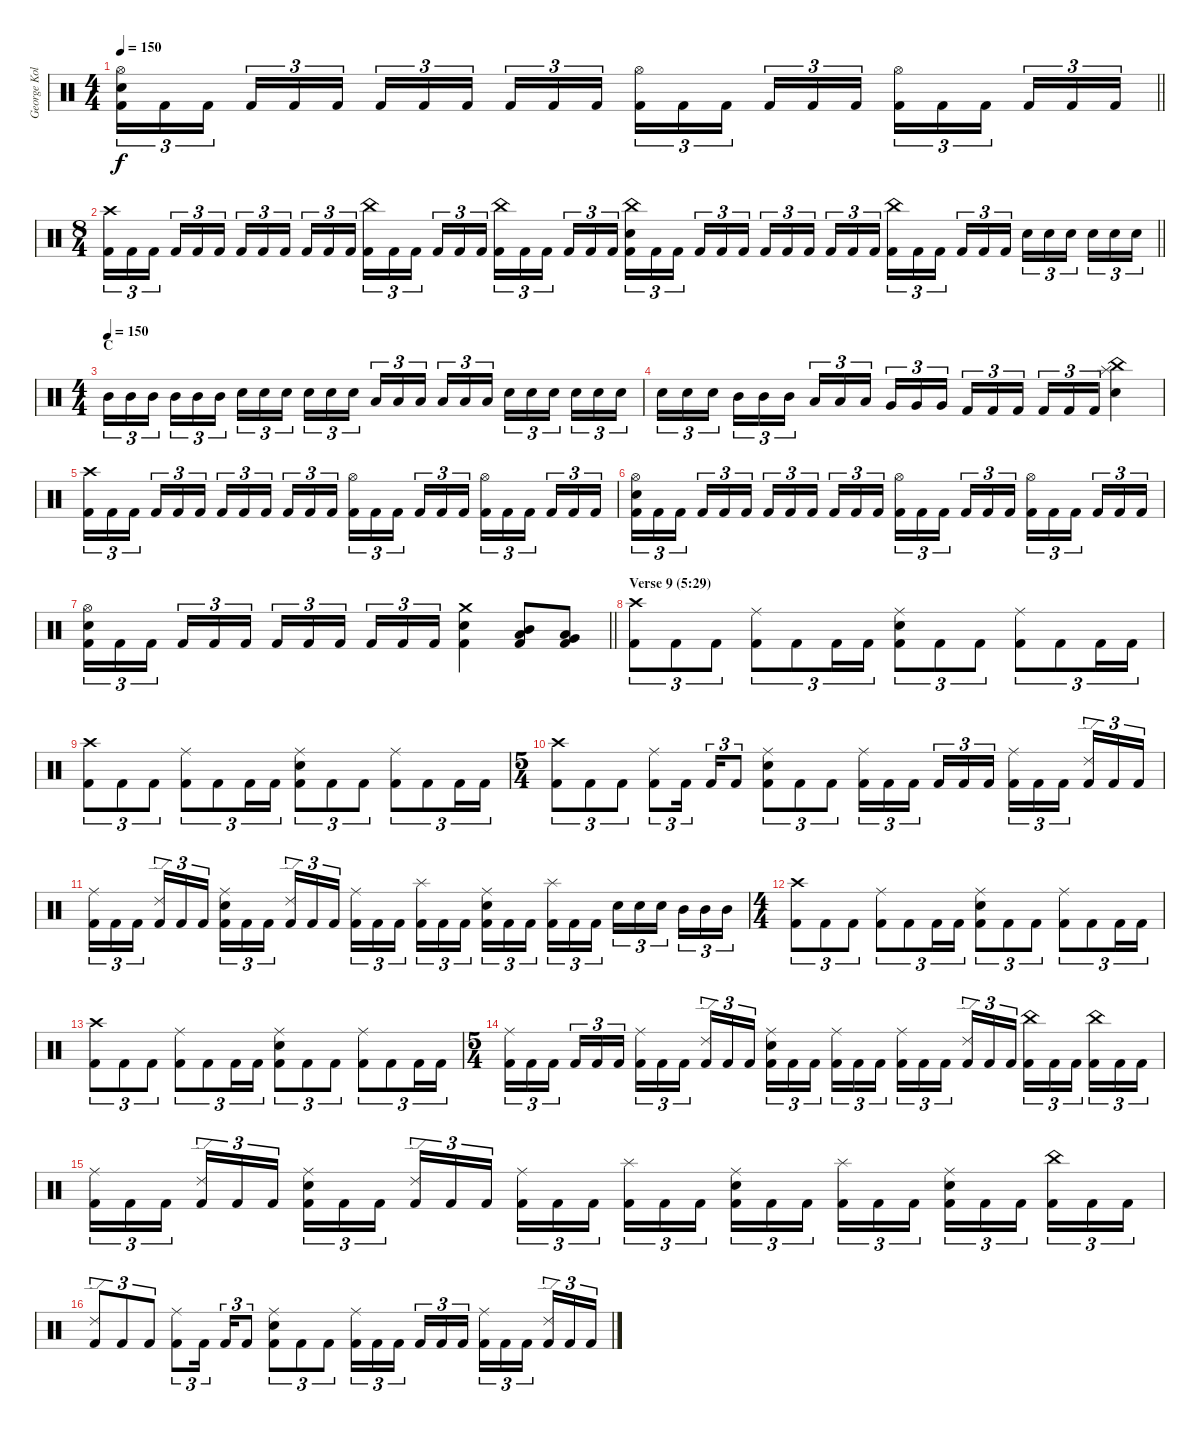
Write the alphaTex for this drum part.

\track ("George Kollias" "George Kol") {instrument percussion}
\staff {score}
\articulation defaults
\ts (4 4)
\tempo 150
\clef neutral
\barLineRight lightlight
\ks c
("Hi-Hat (open)" "Electric Snare (hit)" "Kick (hit) 2").16{tu (3 2) dy f} "Kick (hit) 2".16{tu (3 2)} "Kick (hit) 2".16{tu (3 2) beam splitsecondary} "Kick (hit) 2".16{tu (3 2)} "Kick (hit) 2".16{tu (3 2)} "Kick (hit) 2".16{tu (3 2)} "Kick (hit) 2".16{tu (3 2)} "Kick (hit) 2".16{tu (3 2)} "Kick (hit) 2".16{tu (3 2) beam splitsecondary} "Kick (hit) 2".16{tu (3 2)} "Kick (hit) 2".16{tu (3 2)} "Kick (hit) 2".16{tu (3 2)} ("Hi-Hat (open)" "Kick (hit) 2").16{tu (3 2)} "Kick (hit) 2".16{tu (3 2)} "Kick (hit) 2".16{tu (3 2) beam splitsecondary} "Kick (hit) 2".16{tu (3 2)} "Kick (hit) 2".16{tu (3 2)} "Kick (hit) 2".16{tu (3 2)} ("Hi-Hat (open)" "Kick (hit) 2").16{tu (3 2)} "Kick (hit) 2".16{tu (3 2)} "Kick (hit) 2".16{tu (3 2) beam splitsecondary} "Kick (hit) 2".16{tu (3 2)} "Kick (hit) 2".16{tu (3 2)} "Kick (hit) 2".16{tu (3 2)} |
\ts (8 4)
\barLineRight lightlight
("Crash high (hit)" "Kick (hit) 2").16{tu (3 2)} "Kick (hit) 2".16{tu (3 2)} "Kick (hit) 2".16{tu (3 2) beam splitsecondary} "Kick (hit) 2".16{tu (3 2)} "Kick (hit) 2".16{tu (3 2)} "Kick (hit) 2".16{tu (3 2)} "Kick (hit) 2".16{tu (3 2)} "Kick (hit) 2".16{tu (3 2)} "Kick (hit) 2".16{tu (3 2) beam splitsecondary} "Kick (hit) 2".16{tu (3 2)} "Kick (hit) 2".16{tu (3 2)} "Kick (hit) 2".16{tu (3 2)} ("China (hit)" "Kick (hit) 2").16{tu (3 2)} "Kick (hit) 2".16{tu (3 2)} "Kick (hit) 2".16{tu (3 2) beam splitsecondary} "Kick (hit) 2".16{tu (3 2)} "Kick (hit) 2".16{tu (3 2)} "Kick (hit) 2".16{tu (3 2)} ("China (hit)" "Kick (hit) 2").16{tu (3 2)} "Kick (hit) 2".16{tu (3 2)} "Kick (hit) 2".16{tu (3 2) beam splitsecondary} "Kick (hit) 2".16{tu (3 2)} "Kick (hit) 2".16{tu (3 2)} "Kick (hit) 2".16{tu (3 2)} ("China (hit)" "Electric Snare (hit)" "Kick (hit) 2").16{tu (3 2)} "Kick (hit) 2".16{tu (3 2)} "Kick (hit) 2".16{tu (3 2) beam splitsecondary} "Kick (hit) 2".16{tu (3 2)} "Kick (hit) 2".16{tu (3 2)} "Kick (hit) 2".16{tu (3 2)} "Kick (hit) 2".16{tu (3 2)} "Kick (hit) 2".16{tu (3 2)} "Kick (hit) 2".16{tu (3 2) beam splitsecondary} "Kick (hit) 2".16{tu (3 2)} "Kick (hit) 2".16{tu (3 2)} "Kick (hit) 2".16{tu (3 2)} ("China (hit)" "Kick (hit) 2").16{tu (3 2)} "Kick (hit) 2".16{tu (3 2)} "Kick (hit) 2".16{tu (3 2) beam splitsecondary} "Kick (hit) 2".16{tu (3 2)} "Kick (hit) 2".16{tu (3 2)} "Kick (hit) 2".16{tu (3 2)} "Electric Snare (hit)".16{tu (3 2)} "Electric Snare (hit)".16{tu (3 2)} "Electric Snare (hit)".16{tu (3 2) beam splitsecondary} "Electric Snare (hit)".16{tu (3 2)} "Electric Snare (hit)".16{tu (3 2)} "Electric Snare (hit)".16{tu (3 2)} |
\ts (4 4)
\section ("" "C")
\tempo (150)
"Mid Tom (hit)".16{tu (3 2)} "Mid Tom (hit)".16{tu (3 2)} "Mid Tom (hit)".16{tu (3 2) beam splitsecondary} "Mid Tom (hit)".16{tu (3 2)} "Mid Tom (hit)".16{tu (3 2)} "Mid Tom (hit)".16{tu (3 2)} "Electric Snare (hit)".16{tu (3 2)} "Electric Snare (hit)".16{tu (3 2)} "Electric Snare (hit)".16{tu (3 2) beam splitsecondary} "Electric Snare (hit)".16{tu (3 2)} "Electric Snare (hit)".16{tu (3 2)} "Electric Snare (hit)".16{tu (3 2)} "Low Tom (hit)".16{tu (3 2)} "Low Tom (hit)".16{tu (3 2)} "Low Tom (hit)".16{tu (3 2) beam splitsecondary} "Low Tom (hit)".16{tu (3 2)} "Low Tom (hit)".16{tu (3 2)} "Low Tom (hit)".16{tu (3 2)} "Electric Snare (hit)".16{tu (3 2)} "Electric Snare (hit)".16{tu (3 2)} "Electric Snare (hit)".16{tu (3 2) beam splitsecondary} "Electric Snare (hit)".16{tu (3 2)} "Electric Snare (hit)".16{tu (3 2)} "Electric Snare (hit)".16{tu (3 2)} |
"Electric Snare (hit)".16{tu (3 2)} "Electric Snare (hit)".16{tu (3 2)} "Electric Snare (hit)".16{tu (3 2) beam splitsecondary} "Mid Tom (hit)".16{tu (3 2)} "Mid Tom (hit)".16{tu (3 2)} "Mid Tom (hit)".16{tu (3 2)} "Low Tom (hit)".16{tu (3 2)} "Low Tom (hit)".16{tu (3 2)} "Low Tom (hit)".16{tu (3 2) beam splitsecondary} "Very Low Tom (hit)".16{tu (3 2)} "Very Low Tom (hit)".16{tu (3 2)} "Very Low Tom (hit)".16{tu (3 2)} "Kick (hit) 2".16{tu (3 2)} "Kick (hit) 2".16{tu (3 2)} "Kick (hit) 2".16{tu (3 2) beam splitsecondary} "Kick (hit) 2".16{tu (3 2)} "Kick (hit) 2".16{tu (3 2)} "Kick (hit) 2".16{tu (3 2)} ("Splash (hit)" "China (hit)" "Electric Snare (hit)").4 |
("Crash high (hit)" "Kick (hit) 2").16{tu (3 2)} "Kick (hit) 2".16{tu (3 2)} "Kick (hit) 2".16{tu (3 2) beam splitsecondary} "Kick (hit) 2".16{tu (3 2)} "Kick (hit) 2".16{tu (3 2)} "Kick (hit) 2".16{tu (3 2)} "Kick (hit) 2".16{tu (3 2)} "Kick (hit) 2".16{tu (3 2)} "Kick (hit) 2".16{tu (3 2) beam splitsecondary} "Kick (hit) 2".16{tu (3 2)} "Kick (hit) 2".16{tu (3 2)} "Kick (hit) 2".16{tu (3 2)} ("Hi-Hat (open)" "Kick (hit) 2").16{tu (3 2)} "Kick (hit) 2".16{tu (3 2)} "Kick (hit) 2".16{tu (3 2) beam splitsecondary} "Kick (hit) 2".16{tu (3 2)} "Kick (hit) 2".16{tu (3 2)} "Kick (hit) 2".16{tu (3 2)} ("Hi-Hat (open)" "Kick (hit) 2").16{tu (3 2)} "Kick (hit) 2".16{tu (3 2)} "Kick (hit) 2".16{tu (3 2) beam splitsecondary} "Kick (hit) 2".16{tu (3 2)} "Kick (hit) 2".16{tu (3 2)} "Kick (hit) 2".16{tu (3 2)} |
("Hi-Hat (open)" "Electric Snare (hit)" "Kick (hit) 2").16{tu (3 2)} "Kick (hit) 2".16{tu (3 2)} "Kick (hit) 2".16{tu (3 2) beam splitsecondary} "Kick (hit) 2".16{tu (3 2)} "Kick (hit) 2".16{tu (3 2)} "Kick (hit) 2".16{tu (3 2)} "Kick (hit) 2".16{tu (3 2)} "Kick (hit) 2".16{tu (3 2)} "Kick (hit) 2".16{tu (3 2) beam splitsecondary} "Kick (hit) 2".16{tu (3 2)} "Kick (hit) 2".16{tu (3 2)} "Kick (hit) 2".16{tu (3 2)} ("Hi-Hat (open)" "Kick (hit) 2").16{tu (3 2)} "Kick (hit) 2".16{tu (3 2)} "Kick (hit) 2".16{tu (3 2) beam splitsecondary} "Kick (hit) 2".16{tu (3 2)} "Kick (hit) 2".16{tu (3 2)} "Kick (hit) 2".16{tu (3 2)} ("Hi-Hat (open)" "Kick (hit) 2").16{tu (3 2)} "Kick (hit) 2".16{tu (3 2)} "Kick (hit) 2".16{tu (3 2) beam splitsecondary} "Kick (hit) 2".16{tu (3 2)} "Kick (hit) 2".16{tu (3 2)} "Kick (hit) 2".16{tu (3 2)} |
\barLineRight lightlight
("Hi-Hat (open)" "Electric Snare (hit)" "Kick (hit) 2").16{tu (3 2)} "Kick (hit) 2".16{tu (3 2)} "Kick (hit) 2".16{tu (3 2) beam splitsecondary} "Kick (hit) 2".16{tu (3 2)} "Kick (hit) 2".16{tu (3 2)} "Kick (hit) 2".16{tu (3 2)} "Kick (hit) 2".16{tu (3 2)} "Kick (hit) 2".16{tu (3 2)} "Kick (hit) 2".16{tu (3 2) beam splitsecondary} "Kick (hit) 2".16{tu (3 2)} "Kick (hit) 2".16{tu (3 2)} "Kick (hit) 2".16{tu (3 2)} ("Crash medium (hit)" "Electric Snare (hit)" "Kick (hit) 2").4 ("Mid Tom (hit)" "Low Tom (hit)" "Kick (hit) 2").8 ("Low Tom (hit)" "Very Low Tom (hit)" "Kick (hit) 2").8 |
\section ("" "Verse 9 (5:29)")
("Crash high (hit)" "Kick (hit) 2").8{tu (3 2)} "Kick (hit) 2".8{tu (3 2)} "Kick (hit) 2".8{tu (3 2)} ("Ride (middle)" "Kick (hit) 2").8{tu (3 2)} "Kick (hit) 2".8{tu (3 2)} "Kick (hit) 2".16{tu (3 2)} "Kick (hit) 2".16{tu (3 2)} ("Ride (middle)" "Electric Snare (hit)" "Kick (hit) 2").8{tu (3 2)} "Kick (hit) 2".8{tu (3 2)} "Kick (hit) 2".8{tu (3 2)} ("Ride (middle)" "Kick (hit) 2").8{tu (3 2)} "Kick (hit) 2".8{tu (3 2)} "Kick (hit) 2".16{tu (3 2)} "Kick (hit) 2".16{tu (3 2)} |
("Crash high (hit)" "Kick (hit) 2").8{tu (3 2)} "Kick (hit) 2".8{tu (3 2)} "Kick (hit) 2".8{tu (3 2)} ("Ride (middle)" "Kick (hit) 2").8{tu (3 2)} "Kick (hit) 2".8{tu (3 2)} "Kick (hit) 2".16{tu (3 2)} "Kick (hit) 2".16{tu (3 2)} ("Ride (middle)" "Electric Snare (hit)" "Kick (hit) 2").8{tu (3 2)} "Kick (hit) 2".8{tu (3 2)} "Kick (hit) 2".8{tu (3 2)} ("Ride (middle)" "Kick (hit) 2").8{tu (3 2)} "Kick (hit) 2".8{tu (3 2)} "Kick (hit) 2".16{tu (3 2)} "Kick (hit) 2".16{tu (3 2)} |
\ts (5 4)
("Crash high (hit)" "Kick (hit) 2").8{tu (3 2)} "Kick (hit) 2".8{tu (3 2)} "Kick (hit) 2".8{tu (3 2)} ("Ride (middle)" "Kick (hit) 2").8{tu (3 2)} "Kick (hit) 2".16{tu (3 2) beam splitsecondary} "Kick (hit) 2".16{tu (3 2)} "Kick (hit) 2".8{tu (3 2)} ("Ride (middle)" "Electric Snare (hit)" "Kick (hit) 2").8{tu (3 2)} "Kick (hit) 2".8{tu (3 2)} "Kick (hit) 2".8{tu (3 2)} ("Ride (middle)" "Kick (hit) 2").16{tu (3 2)} "Kick (hit) 2".16{tu (3 2)} "Kick (hit) 2".16{tu (3 2) beam splitsecondary} "Kick (hit) 2".16{tu (3 2)} "Kick (hit) 2".16{tu (3 2)} "Kick (hit) 2".16{tu (3 2)} ("Ride (middle)" "Kick (hit) 2").16{tu (3 2)} "Kick (hit) 2".16{tu (3 2)} "Kick (hit) 2".16{tu (3 2) beam splitsecondary} ("Ride (edge) 2" "Kick (hit) 2").16{tu (3 2)} "Kick (hit) 2".16{tu (3 2)} "Kick (hit) 2".16{tu (3 2)} |
("Ride (middle)" "Kick (hit) 2").16{tu (3 2)} "Kick (hit) 2".16{tu (3 2)} "Kick (hit) 2".16{tu (3 2) beam splitsecondary} ("Ride (edge) 2" "Kick (hit) 2").16{tu (3 2)} "Kick (hit) 2".16{tu (3 2)} "Kick (hit) 2".16{tu (3 2)} ("Ride (middle)" "Electric Snare (hit)" "Kick (hit) 2").16{tu (3 2)} "Kick (hit) 2".16{tu (3 2)} "Kick (hit) 2".16{tu (3 2) beam splitsecondary} ("Ride (edge) 2" "Kick (hit) 2").16{tu (3 2)} "Kick (hit) 2".16{tu (3 2)} "Kick (hit) 2".16{tu (3 2)} ("Ride (middle)" "Kick (hit) 2").16{tu (3 2)} "Kick (hit) 2".16{tu (3 2)} "Kick (hit) 2".16{tu (3 2) beam splitsecondary} ("Splash (hit)" "Kick (hit) 2").16{tu (3 2)} "Kick (hit) 2".16{tu (3 2)} "Kick (hit) 2".16{tu (3 2)} ("Ride (middle)" "Electric Snare (hit)" "Kick (hit) 2").16{tu (3 2)} "Kick (hit) 2".16{tu (3 2)} "Kick (hit) 2".16{tu (3 2) beam splitsecondary} ("Splash (hit)" "Kick (hit) 2").16{tu (3 2)} "Kick (hit) 2".16{tu (3 2)} "Kick (hit) 2".16{tu (3 2)} "Electric Snare (hit)".16{tu (3 2)} "Electric Snare (hit)".16{tu (3 2)} "Electric Snare (hit)".16{tu (3 2) beam splitsecondary} "Mid Tom (hit)".16{tu (3 2)} "Mid Tom (hit)".16{tu (3 2)} "Mid Tom (hit)".16{tu (3 2)} |
\ts (4 4)
("Crash high (hit)" "Kick (hit) 2").8{tu (3 2)} "Kick (hit) 2".8{tu (3 2)} "Kick (hit) 2".8{tu (3 2)} ("Ride (middle)" "Kick (hit) 2").8{tu (3 2)} "Kick (hit) 2".8{tu (3 2)} "Kick (hit) 2".16{tu (3 2)} "Kick (hit) 2".16{tu (3 2)} ("Ride (middle)" "Electric Snare (hit)" "Kick (hit) 2").8{tu (3 2)} "Kick (hit) 2".8{tu (3 2)} "Kick (hit) 2".8{tu (3 2)} ("Ride (middle)" "Kick (hit) 2").8{tu (3 2)} "Kick (hit) 2".8{tu (3 2)} "Kick (hit) 2".16{tu (3 2)} "Kick (hit) 2".16{tu (3 2)} |
("Crash high (hit)" "Kick (hit) 2").8{tu (3 2)} "Kick (hit) 2".8{tu (3 2)} "Kick (hit) 2".8{tu (3 2)} ("Ride (middle)" "Kick (hit) 2").8{tu (3 2)} "Kick (hit) 2".8{tu (3 2)} "Kick (hit) 2".16{tu (3 2)} "Kick (hit) 2".16{tu (3 2)} ("Ride (middle)" "Electric Snare (hit)" "Kick (hit) 2").8{tu (3 2)} "Kick (hit) 2".8{tu (3 2)} "Kick (hit) 2".8{tu (3 2)} ("Ride (middle)" "Kick (hit) 2").8{tu (3 2)} "Kick (hit) 2".8{tu (3 2)} "Kick (hit) 2".16{tu (3 2)} "Kick (hit) 2".16{tu (3 2)} |
\ts (5 4)
("Ride (middle)" "Kick (hit) 2").16{tu (3 2)} "Kick (hit) 2".16{tu (3 2)} "Kick (hit) 2".16{tu (3 2) beam splitsecondary} "Kick (hit) 2".16{tu (3 2)} "Kick (hit) 2".16{tu (3 2)} "Kick (hit) 2".16{tu (3 2)} ("Ride (middle)" "Kick (hit) 2").16{tu (3 2)} "Kick (hit) 2".16{tu (3 2)} "Kick (hit) 2".16{tu (3 2) beam splitsecondary} ("Ride (edge) 2" "Kick (hit) 2").16{tu (3 2)} "Kick (hit) 2".16{tu (3 2)} "Kick (hit) 2".16{tu (3 2)} ("Ride (middle)" "Electric Snare (hit)" "Kick (hit) 2").16{tu (3 2)} "Kick (hit) 2".16{tu (3 2)} "Kick (hit) 2".16{tu (3 2) beam splitsecondary} ("Ride (middle)" "Kick (hit) 2").16{tu (3 2)} "Kick (hit) 2".16{tu (3 2)} "Kick (hit) 2".16{tu (3 2)} ("Ride (middle)" "Kick (hit) 2").16{tu (3 2)} "Kick (hit) 2".16{tu (3 2)} "Kick (hit) 2".16{tu (3 2) beam splitsecondary} ("Ride (edge) 2" "Kick (hit) 2").16{tu (3 2)} "Kick (hit) 2".16{tu (3 2)} "Kick (hit) 2".16{tu (3 2)} ("China (hit)" "Kick (hit) 2").16{tu (3 2)} "Kick (hit) 2".16{tu (3 2)} "Kick (hit) 2".16{tu (3 2) beam splitsecondary} ("China (hit)" "Kick (hit) 2").16{tu (3 2)} "Kick (hit) 2".16{tu (3 2)} "Kick (hit) 2".16{tu (3 2)} |
("Ride (middle)" "Kick (hit) 2").16{tu (3 2)} "Kick (hit) 2".16{tu (3 2)} "Kick (hit) 2".16{tu (3 2) beam splitsecondary} ("Ride (edge) 2" "Kick (hit) 2").16{tu (3 2)} "Kick (hit) 2".16{tu (3 2)} "Kick (hit) 2".16{tu (3 2)} ("Ride (middle)" "Electric Snare (hit)" "Kick (hit) 2").16{tu (3 2)} "Kick (hit) 2".16{tu (3 2)} "Kick (hit) 2".16{tu (3 2) beam splitsecondary} ("Ride (edge) 2" "Kick (hit) 2").16{tu (3 2)} "Kick (hit) 2".16{tu (3 2)} "Kick (hit) 2".16{tu (3 2)} ("Ride (middle)" "Kick (hit) 2").16{tu (3 2)} "Kick (hit) 2".16{tu (3 2)} "Kick (hit) 2".16{tu (3 2) beam splitsecondary} ("Splash (hit)" "Kick (hit) 2").16{tu (3 2)} "Kick (hit) 2".16{tu (3 2)} "Kick (hit) 2".16{tu (3 2)} ("Ride (middle)" "Electric Snare (hit)" "Kick (hit) 2").16{tu (3 2)} "Kick (hit) 2".16{tu (3 2)} "Kick (hit) 2".16{tu (3 2) beam splitsecondary} ("Splash (hit)" "Kick (hit) 2").16{tu (3 2)} "Kick (hit) 2".16{tu (3 2)} "Kick (hit) 2".16{tu (3 2)} ("Ride (middle)" "Electric Snare (hit)" "Kick (hit) 2").16{tu (3 2)} "Kick (hit) 2".16{tu (3 2)} "Kick (hit) 2".16{tu (3 2) beam splitsecondary} ("China (hit)" "Kick (hit) 2").16{tu (3 2)} "Kick (hit) 2".16{tu (3 2)} "Kick (hit) 2".16{tu (3 2)} |
("Ride (edge) 2" "Kick (hit) 2").8{tu (3 2)} "Kick (hit) 2".8{tu (3 2)} "Kick (hit) 2".8{tu (3 2)} ("Ride (middle)" "Kick (hit) 2").8{tu (3 2)} "Kick (hit) 2".16{tu (3 2) beam splitsecondary} "Kick (hit) 2".16{tu (3 2)} "Kick (hit) 2".8{tu (3 2)} ("Ride (middle)" "Electric Snare (hit)" "Kick (hit) 2").8{tu (3 2)} "Kick (hit) 2".8{tu (3 2)} "Kick (hit) 2".8{tu (3 2)} ("Ride (middle)" "Kick (hit) 2").16{tu (3 2)} "Kick (hit) 2".16{tu (3 2)} "Kick (hit) 2".16{tu (3 2) beam splitsecondary} "Kick (hit) 2".16{tu (3 2)} "Kick (hit) 2".16{tu (3 2)} "Kick (hit) 2".16{tu (3 2)} ("Ride (middle)" "Kick (hit) 2").16{tu (3 2)} "Kick (hit) 2".16{tu (3 2)} "Kick (hit) 2".16{tu (3 2) beam splitsecondary} ("Ride (edge) 2" "Kick (hit) 2").16{tu (3 2)} "Kick (hit) 2".16{tu (3 2)} "Kick (hit) 2".16{tu (3 2)}
